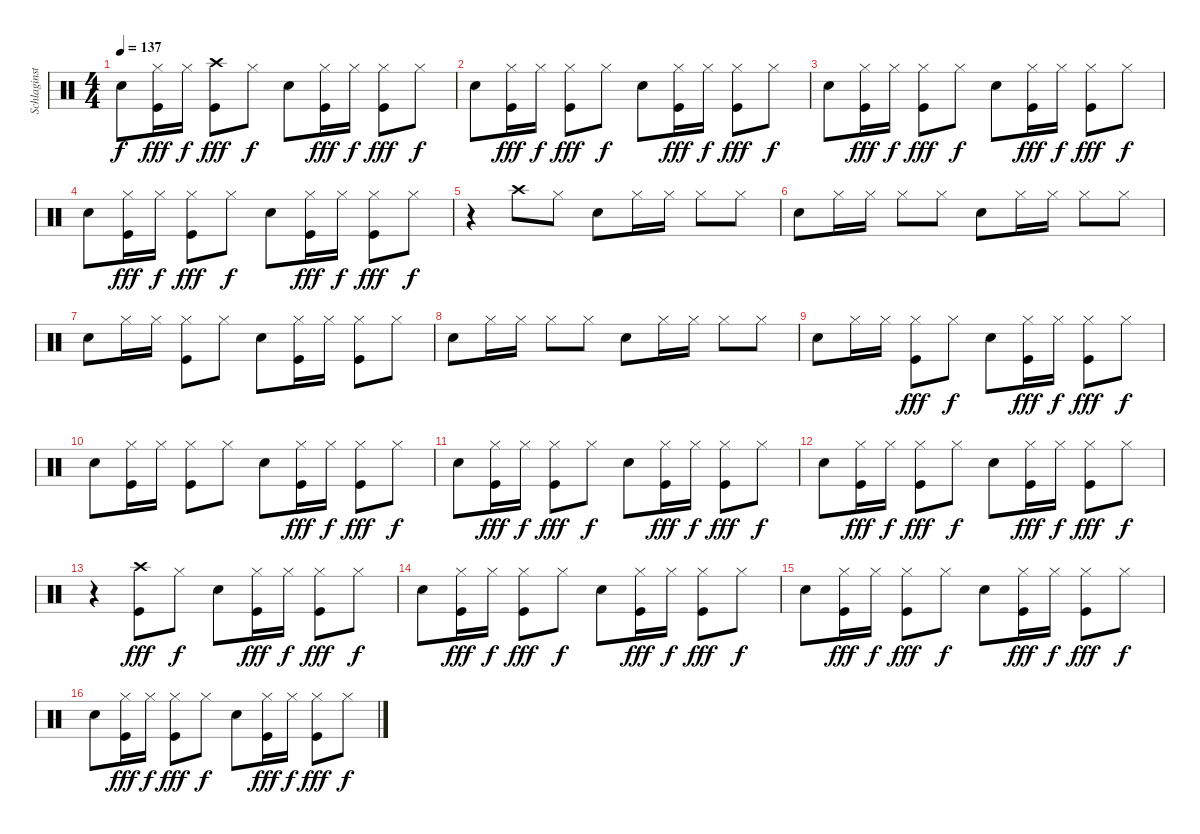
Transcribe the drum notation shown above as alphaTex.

\track ("Schlaginstrument" "Schlaginst") {instrument percussion}
\staff {score}
\articulation defaults
\ts (4 4)
\tempo 137
\clef neutral
\ks c "Hand Clap (hit)".8{dy f}
("Hi-Hat (closed)" "Kick (hit)").16{dy fff} "Hi-Hat (closed)".16{dy f} ("Crash high (hit)" "Kick (hit)").8{dy fff} "Hi-Hat (closed)".8{dy f} "Hand Clap (hit)".8 ("Hi-Hat (closed)" "Kick (hit)").16{dy fff} "Hi-Hat (closed)".16{dy f} ("Hi-Hat (closed)" "Kick (hit)").8{dy fff} "Hi-Hat (closed)".8{dy f} |
"Hand Clap (hit)".8 ("Hi-Hat (closed)" "Kick (hit)").16{dy fff} "Hi-Hat (closed)".16{dy f} ("Hi-Hat (closed)" "Kick (hit)").8{dy fff} "Hi-Hat (closed)".8{dy f} "Hand Clap (hit)".8 ("Hi-Hat (closed)" "Kick (hit)").16{dy fff} "Hi-Hat (closed)".16{dy f} ("Hi-Hat (closed)" "Kick (hit)").8{dy fff} "Hi-Hat (closed)".8{dy f} |
"Hand Clap (hit)".8 ("Hi-Hat (closed)" "Kick (hit)").16{dy fff} "Hi-Hat (closed)".16{dy f} ("Hi-Hat (closed)" "Kick (hit)").8{dy fff} "Hi-Hat (closed)".8{dy f} "Hand Clap (hit)".8 ("Hi-Hat (closed)" "Kick (hit)").16{dy fff} "Hi-Hat (closed)".16{dy f} ("Hi-Hat (closed)" "Kick (hit)").8{dy fff} "Hi-Hat (closed)".8{dy f} |
"Hand Clap (hit)".8 ("Hi-Hat (closed)" "Kick (hit)").16{dy fff} "Hi-Hat (closed)".16{dy f} ("Hi-Hat (closed)" "Kick (hit)").8{dy fff} "Hi-Hat (closed)".8{dy f} "Hand Clap (hit)".8 ("Hi-Hat (closed)" "Kick (hit)").16{dy fff} "Hi-Hat (closed)".16{dy f} ("Hi-Hat (closed)" "Kick (hit)").8{dy fff} "Hi-Hat (closed)".8{dy f} |
r.4 "Crash high (hit)".8 "Hi-Hat (closed)".8 "Hand Clap (hit)".8 "Hi-Hat (closed)".16 "Hi-Hat (closed)".16 "Hi-Hat (closed)".8 "Hi-Hat (closed)".8 |
"Hand Clap (hit)".8 "Hi-Hat (closed)".16 "Hi-Hat (closed)".16 "Hi-Hat (closed)".8 "Hi-Hat (closed)".8 "Hand Clap (hit)".8 "Hi-Hat (closed)".16 "Hi-Hat (closed)".16 "Hi-Hat (closed)".8 "Hi-Hat (closed)".8 |
"Hand Clap (hit)".8 "Hi-Hat (closed)".16 "Hi-Hat (closed)".16 ("Hi-Hat (closed)" "Kick (hit)").8 "Hi-Hat (closed)".8 "Hand Clap (hit)".8 ("Hi-Hat (closed)" "Kick (hit)").16 "Hi-Hat (closed)".16 ("Hi-Hat (closed)" "Kick (hit)").8 "Hi-Hat (closed)".8 |
"Hand Clap (hit)".8 "Hi-Hat (closed)".16 "Hi-Hat (closed)".16 "Hi-Hat (closed)".8 "Hi-Hat (closed)".8 "Hand Clap (hit)".8 "Hi-Hat (closed)".16 "Hi-Hat (closed)".16 "Hi-Hat (closed)".8 "Hi-Hat (closed)".8 |
"Hand Clap (hit)".8 "Hi-Hat (closed)".16 "Hi-Hat (closed)".16 ("Hi-Hat (closed)" "Kick (hit)").8{dy fff} "Hi-Hat (closed)".8{dy f} "Hand Clap (hit)".8 ("Hi-Hat (closed)" "Kick (hit)").16{dy fff} "Hi-Hat (closed)".16{dy f} ("Hi-Hat (closed)" "Kick (hit)").8{dy fff} "Hi-Hat (closed)".8{dy f} |
"Hand Clap (hit)".8 ("Hi-Hat (closed)" "Kick (hit)").16 "Hi-Hat (closed)".16 ("Hi-Hat (closed)" "Kick (hit)").8 "Hi-Hat (closed)".8 "Hand Clap (hit)".8 ("Hi-Hat (closed)" "Kick (hit)").16{dy fff} "Hi-Hat (closed)".16{dy f} ("Hi-Hat (closed)" "Kick (hit)").8{dy fff} "Hi-Hat (closed)".8{dy f} |
"Hand Clap (hit)".8 ("Hi-Hat (closed)" "Kick (hit)").16{dy fff} "Hi-Hat (closed)".16{dy f} ("Hi-Hat (closed)" "Kick (hit)").8{dy fff} "Hi-Hat (closed)".8{dy f} "Hand Clap (hit)".8 ("Hi-Hat (closed)" "Kick (hit)").16{dy fff} "Hi-Hat (closed)".16{dy f} ("Hi-Hat (closed)" "Kick (hit)").8{dy fff} "Hi-Hat (closed)".8{dy f} |
"Hand Clap (hit)".8 ("Hi-Hat (closed)" "Kick (hit)").16{dy fff} "Hi-Hat (closed)".16{dy f} ("Hi-Hat (closed)" "Kick (hit)").8{dy fff} "Hi-Hat (closed)".8{dy f} "Hand Clap (hit)".8 ("Hi-Hat (closed)" "Kick (hit)").16{dy fff} "Hi-Hat (closed)".16{dy f} ("Hi-Hat (closed)" "Kick (hit)").8{dy fff} "Hi-Hat (closed)".8{dy f} |
r.4 ("Crash high (hit)" "Kick (hit)").8{dy fff} "Hi-Hat (closed)".8{dy f} "Hand Clap (hit)".8 ("Hi-Hat (closed)" "Kick (hit)").16{dy fff} "Hi-Hat (closed)".16{dy f} ("Hi-Hat (closed)" "Kick (hit)").8{dy fff} "Hi-Hat (closed)".8{dy f} |
"Hand Clap (hit)".8 ("Hi-Hat (closed)" "Kick (hit)").16{dy fff} "Hi-Hat (closed)".16{dy f} ("Hi-Hat (closed)" "Kick (hit)").8{dy fff} "Hi-Hat (closed)".8{dy f} "Hand Clap (hit)".8 ("Hi-Hat (closed)" "Kick (hit)").16{dy fff} "Hi-Hat (closed)".16{dy f} ("Hi-Hat (closed)" "Kick (hit)").8{dy fff} "Hi-Hat (closed)".8{dy f} |
"Hand Clap (hit)".8 ("Hi-Hat (closed)" "Kick (hit)").16{dy fff} "Hi-Hat (closed)".16{dy f} ("Hi-Hat (closed)" "Kick (hit)").8{dy fff} "Hi-Hat (closed)".8{dy f} "Hand Clap (hit)".8 ("Hi-Hat (closed)" "Kick (hit)").16{dy fff} "Hi-Hat (closed)".16{dy f} ("Hi-Hat (closed)" "Kick (hit)").8{dy fff} "Hi-Hat (closed)".8{dy f} |
"Hand Clap (hit)".8 ("Hi-Hat (closed)" "Kick (hit)").16{dy fff} "Hi-Hat (closed)".16{dy f} ("Hi-Hat (closed)" "Kick (hit)").8{dy fff} "Hi-Hat (closed)".8{dy f} "Hand Clap (hit)".8 ("Hi-Hat (closed)" "Kick (hit)").16{dy fff} "Hi-Hat (closed)".16{dy f} ("Hi-Hat (closed)" "Kick (hit)").8{dy fff} "Hi-Hat (closed)".8{dy f}
